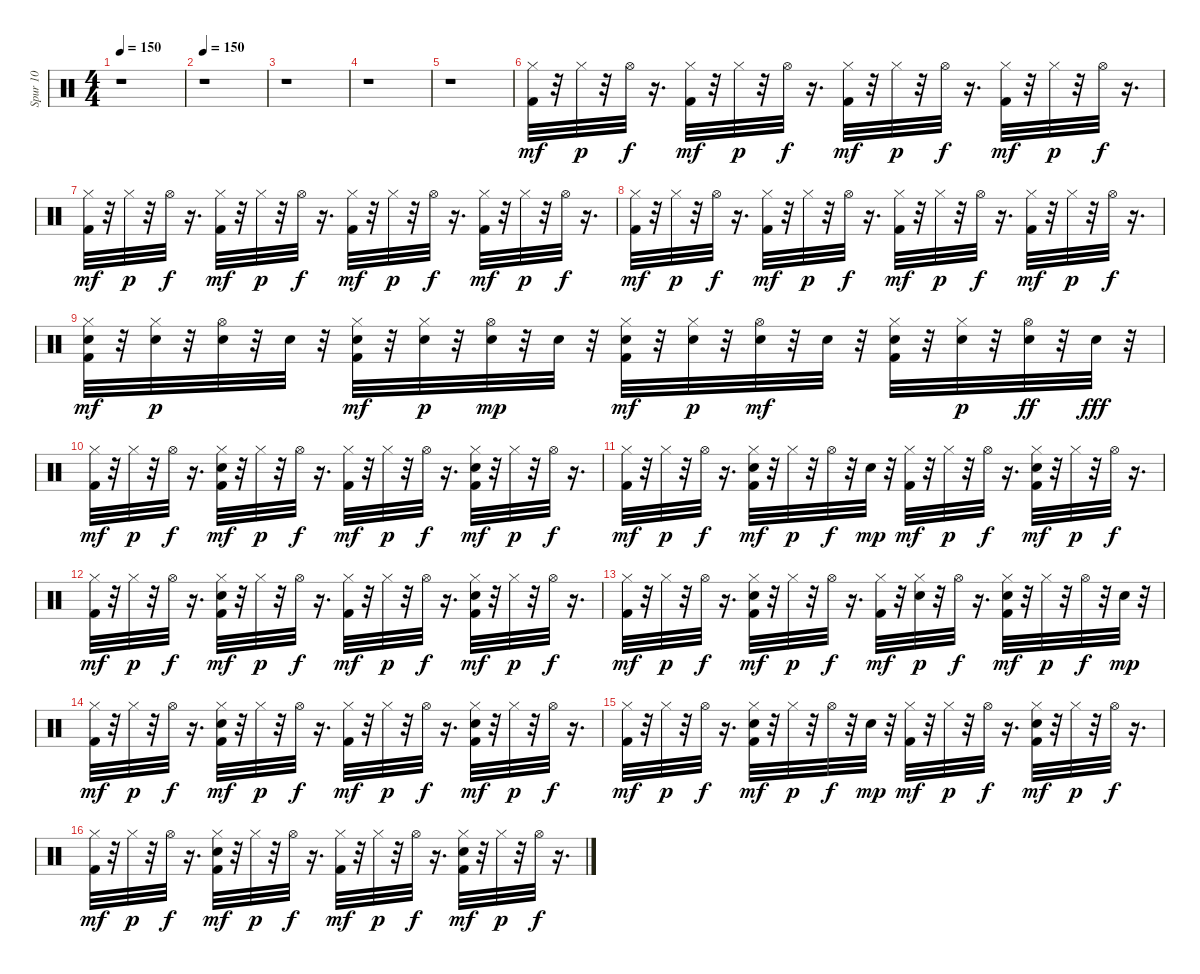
\track ("Spur 10" "Spur 10") {instrument percussion}
\staff {score}
\articulation defaults
\ts (4 4)
\tempo 150
\clef neutral
\ks c
r.1{dy mf} |
\tempo 150
r.1 |
r.1 |
r.1 |
r.1 |
("Kick (hit) 2" "Hi-Hat (closed)").32 r.32 "Hi-Hat (closed)".32{dy p} r.32 "Hi-Hat (open)".32{dy f} r.16{d} ("Kick (hit) 2" "Hi-Hat (closed)").32{dy mf} r.32 "Hi-Hat (closed)".32{dy p} r.32 "Hi-Hat (open)".32{dy f} r.16{d} ("Kick (hit) 2" "Hi-Hat (closed)").32{dy mf} r.32 "Hi-Hat (closed)".32{dy p} r.32 "Hi-Hat (open)".32{dy f} r.16{d} ("Kick (hit) 2" "Hi-Hat (closed)").32{dy mf} r.32 "Hi-Hat (closed)".32{dy p} r.32 "Hi-Hat (open)".32{dy f} r.16{d} |
("Kick (hit) 2" "Hi-Hat (closed)").32{dy mf} r.32 "Hi-Hat (closed)".32{dy p} r.32 "Hi-Hat (open)".32{dy f} r.16{d} ("Kick (hit) 2" "Hi-Hat (closed)").32{dy mf} r.32 "Hi-Hat (closed)".32{dy p} r.32 "Hi-Hat (open)".32{dy f} r.16{d} ("Kick (hit) 2" "Hi-Hat (closed)").32{dy mf} r.32 "Hi-Hat (closed)".32{dy p} r.32 "Hi-Hat (open)".32{dy f} r.16{d} ("Kick (hit) 2" "Hi-Hat (closed)").32{dy mf} r.32 "Hi-Hat (closed)".32{dy p} r.32 "Hi-Hat (open)".32{dy f} r.16{d} |
("Kick (hit) 2" "Hi-Hat (closed)").32{dy mf} r.32 "Hi-Hat (closed)".32{dy p} r.32 "Hi-Hat (open)".32{dy f} r.16{d} ("Kick (hit) 2" "Hi-Hat (closed)").32{dy mf} r.32 "Hi-Hat (closed)".32{dy p} r.32 "Hi-Hat (open)".32{dy f} r.16{d} ("Kick (hit) 2" "Hi-Hat (closed)").32{dy mf} r.32 "Hi-Hat (closed)".32{dy p} r.32 "Hi-Hat (open)".32{dy f} r.16{d} ("Kick (hit) 2" "Hi-Hat (closed)").32{dy mf} r.32 "Hi-Hat (closed)".32{dy p} r.32 "Hi-Hat (open)".32{dy f} r.16{d} |
("Kick (hit) 2" "Snare (hit) 2" "Hi-Hat (closed)").32{dy mf} r.32 ("Snare (hit) 2" "Hi-Hat (closed)").32{dy p} r.32 ("Snare (hit) 2" "Hi-Hat (open)").32 r.32 "Snare (hit) 2".32 r.32 ("Kick (hit) 2" "Snare (hit) 2" "Hi-Hat (closed)").32{dy mf} r.32 ("Snare (hit) 2" "Hi-Hat (closed)").32{dy p} r.32 ("Snare (hit) 2" "Hi-Hat (open)").32{dy mp} r.32 "Snare (hit) 2".32 r.32 ("Kick (hit) 2" "Snare (hit) 2" "Hi-Hat (closed)").32{dy mf} r.32 ("Snare (hit) 2" "Hi-Hat (closed)").32{dy p} r.32 ("Snare (hit) 2" "Hi-Hat (open)").32{dy mf} r.32 "Snare (hit) 2".32 r.32 ("Kick (hit) 2" "Snare (hit) 2" "Hi-Hat (closed)").32 r.32 ("Snare (hit) 2" "Hi-Hat (closed)").32{dy p} r.32 ("Snare (hit) 2" "Hi-Hat (open)").32{dy ff} r.32 "Snare (hit) 2".32{dy fff} r.32 |
("Kick (hit) 2" "Hi-Hat (closed)").32{dy mf} r.32 "Hi-Hat (closed)".32{dy p} r.32 "Hi-Hat (open)".32{dy f} r.16{d} ("Kick (hit) 2" "Snare (hit) 2" "Hi-Hat (closed)").32{dy mf} r.32 "Hi-Hat (closed)".32{dy p} r.32 "Hi-Hat (open)".32{dy f} r.16{d} ("Kick (hit) 2" "Hi-Hat (closed)").32{dy mf} r.32 "Hi-Hat (closed)".32{dy p} r.32 "Hi-Hat (open)".32{dy f} r.16{d} ("Kick (hit) 2" "Snare (hit) 2" "Hi-Hat (closed)").32{dy mf} r.32 "Hi-Hat (closed)".32{dy p} r.32 "Hi-Hat (open)".32{dy f} r.16{d} |
("Kick (hit) 2" "Hi-Hat (closed)").32{dy mf} r.32 "Hi-Hat (closed)".32{dy p} r.32 "Hi-Hat (open)".32{dy f} r.16{d} ("Kick (hit) 2" "Snare (hit) 2" "Hi-Hat (closed)").32{dy mf} r.32 "Hi-Hat (closed)".32{dy p} r.32 "Hi-Hat (open)".32{dy f} r.32 "Snare (hit) 2".32{dy mp} r.32 ("Kick (hit) 2" "Hi-Hat (closed)").32{dy mf} r.32 "Hi-Hat (closed)".32{dy p} r.32 "Hi-Hat (open)".32{dy f} r.16{d} ("Kick (hit) 2" "Snare (hit) 2" "Hi-Hat (closed)").32{dy mf} r.32 "Hi-Hat (closed)".32{dy p} r.32 "Hi-Hat (open)".32{dy f} r.16{d} |
("Kick (hit) 2" "Hi-Hat (closed)").32{dy mf} r.32 "Hi-Hat (closed)".32{dy p} r.32 "Hi-Hat (open)".32{dy f} r.16{d} ("Kick (hit) 2" "Snare (hit) 2" "Hi-Hat (closed)").32{dy mf} r.32 "Hi-Hat (closed)".32{dy p} r.32 "Hi-Hat (open)".32{dy f} r.16{d} ("Kick (hit) 2" "Hi-Hat (closed)").32{dy mf} r.32 "Hi-Hat (closed)".32{dy p} r.32 "Hi-Hat (open)".32{dy f} r.16{d} ("Kick (hit) 2" "Snare (hit) 2" "Hi-Hat (closed)").32{dy mf} r.32 "Hi-Hat (closed)".32{dy p} r.32 "Hi-Hat (open)".32{dy f} r.16{d} |
("Kick (hit) 2" "Hi-Hat (closed)").32{dy mf} r.32 "Hi-Hat (closed)".32{dy p} r.32 "Hi-Hat (open)".32{dy f} r.16{d} ("Kick (hit) 2" "Snare (hit) 2" "Hi-Hat (closed)").32{dy mf} r.32 "Hi-Hat (closed)".32{dy p} r.32 "Hi-Hat (open)".32{dy f} r.16{d} ("Kick (hit) 2" "Hi-Hat (closed)").32{dy mf} r.32 ("Snare (hit) 2" "Hi-Hat (closed)").32{dy p} r.32 "Hi-Hat (open)".32{dy f} r.16{d} ("Kick (hit) 2" "Snare (hit) 2" "Hi-Hat (closed)").32{dy mf} r.32 "Hi-Hat (closed)".32{dy p} r.32 "Hi-Hat (open)".32{dy f} r.32 "Snare (hit) 2".32{dy mp} r.32 |
("Kick (hit) 2" "Hi-Hat (closed)").32{dy mf} r.32 "Hi-Hat (closed)".32{dy p} r.32 "Hi-Hat (open)".32{dy f} r.16{d} ("Kick (hit) 2" "Snare (hit) 2" "Hi-Hat (closed)").32{dy mf} r.32 "Hi-Hat (closed)".32{dy p} r.32 "Hi-Hat (open)".32{dy f} r.16{d} ("Kick (hit) 2" "Hi-Hat (closed)").32{dy mf} r.32 "Hi-Hat (closed)".32{dy p} r.32 "Hi-Hat (open)".32{dy f} r.16{d} ("Kick (hit) 2" "Snare (hit) 2" "Hi-Hat (closed)").32{dy mf} r.32 "Hi-Hat (closed)".32{dy p} r.32 "Hi-Hat (open)".32{dy f} r.16{d} |
("Kick (hit) 2" "Hi-Hat (closed)").32{dy mf} r.32 "Hi-Hat (closed)".32{dy p} r.32 "Hi-Hat (open)".32{dy f} r.16{d} ("Kick (hit) 2" "Snare (hit) 2" "Hi-Hat (closed)").32{dy mf} r.32 "Hi-Hat (closed)".32{dy p} r.32 "Hi-Hat (open)".32{dy f} r.32 "Snare (hit) 2".32{dy mp} r.32 ("Kick (hit) 2" "Hi-Hat (closed)").32{dy mf} r.32 "Hi-Hat (closed)".32{dy p} r.32 "Hi-Hat (open)".32{dy f} r.16{d} ("Kick (hit) 2" "Snare (hit) 2" "Hi-Hat (closed)").32{dy mf} r.32 "Hi-Hat (closed)".32{dy p} r.32 "Hi-Hat (open)".32{dy f} r.16{d} |
("Kick (hit) 2" "Hi-Hat (closed)").32{dy mf} r.32 "Hi-Hat (closed)".32{dy p} r.32 "Hi-Hat (open)".32{dy f} r.16{d} ("Kick (hit) 2" "Snare (hit) 2" "Hi-Hat (closed)").32{dy mf} r.32 "Hi-Hat (closed)".32{dy p} r.32 "Hi-Hat (open)".32{dy f} r.16{d} ("Kick (hit) 2" "Hi-Hat (closed)").32{dy mf} r.32 "Hi-Hat (closed)".32{dy p} r.32 "Hi-Hat (open)".32{dy f} r.16{d} ("Kick (hit) 2" "Snare (hit) 2" "Hi-Hat (closed)").32{dy mf} r.32 "Hi-Hat (closed)".32{dy p} r.32 "Hi-Hat (open)".32{dy f} r.16{d}
